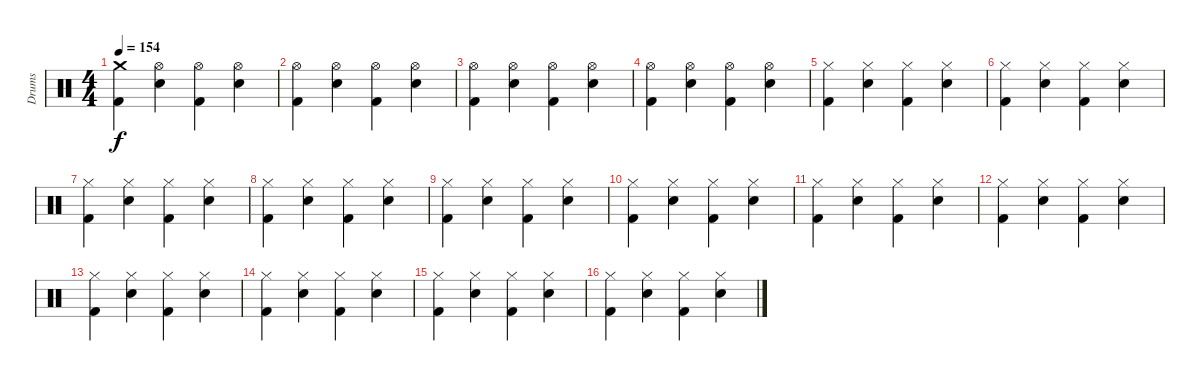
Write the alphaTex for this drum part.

\track ("Drums" "Drums") {instrument percussion}
\staff {score}
\articulation defaults
\ts (4 4)
\tempo 154
\clef neutral
\ks c
("Crash medium (hit)" "Kick (hit) 2").4{dy f} ("Hi-Hat (open)" "Electric Snare (hit)").4 ("Hi-Hat (open)" "Kick (hit) 2").4 ("Hi-Hat (open)" "Electric Snare (hit)").4 |
("Hi-Hat (open)" "Kick (hit) 2").4 ("Hi-Hat (open)" "Electric Snare (hit)").4 ("Hi-Hat (open)" "Kick (hit) 2").4 ("Hi-Hat (open)" "Electric Snare (hit)").4 |
("Kick (hit) 2" "Hi-Hat (open)").4 ("Electric Snare (hit)" "Hi-Hat (open)").4 ("Kick (hit) 2" "Hi-Hat (open)").4 ("Electric Snare (hit)" "Hi-Hat (open)").4 |
("Kick (hit) 2" "Hi-Hat (open)").4 ("Electric Snare (hit)" "Hi-Hat (open)").4 ("Kick (hit) 2" "Hi-Hat (open)").4 ("Electric Snare (hit)" "Hi-Hat (open)").4 |
("Kick (hit) 2" "Hi-Hat (closed)").4 ("Electric Snare (hit)" "Hi-Hat (closed)").4 ("Kick (hit) 2" "Hi-Hat (closed)").4 ("Electric Snare (hit)" "Hi-Hat (closed)").4 |
("Kick (hit) 2" "Hi-Hat (closed)").4 ("Electric Snare (hit)" "Hi-Hat (closed)").4 ("Kick (hit) 2" "Hi-Hat (closed)").4 ("Electric Snare (hit)" "Hi-Hat (closed)").4 |
("Kick (hit) 2" "Hi-Hat (closed)").4 ("Electric Snare (hit)" "Hi-Hat (closed)").4 ("Kick (hit) 2" "Hi-Hat (closed)").4 ("Electric Snare (hit)" "Hi-Hat (closed)").4 |
("Kick (hit) 2" "Hi-Hat (closed)").4 ("Electric Snare (hit)" "Hi-Hat (closed)").4 ("Kick (hit) 2" "Hi-Hat (closed)").4 ("Electric Snare (hit)" "Hi-Hat (closed)").4 |
("Kick (hit) 2" "Hi-Hat (closed)").4 ("Electric Snare (hit)" "Hi-Hat (closed)").4 ("Kick (hit) 2" "Hi-Hat (closed)").4 ("Electric Snare (hit)" "Hi-Hat (closed)").4 |
("Kick (hit) 2" "Hi-Hat (closed)").4 ("Electric Snare (hit)" "Hi-Hat (closed)").4 ("Kick (hit) 2" "Hi-Hat (closed)").4 ("Electric Snare (hit)" "Hi-Hat (closed)").4 |
("Kick (hit) 2" "Hi-Hat (closed)").4 ("Electric Snare (hit)" "Hi-Hat (closed)").4 ("Kick (hit) 2" "Hi-Hat (closed)").4 ("Electric Snare (hit)" "Hi-Hat (closed)").4 |
("Kick (hit) 2" "Hi-Hat (closed)").4 ("Electric Snare (hit)" "Hi-Hat (closed)").4 ("Kick (hit) 2" "Hi-Hat (closed)").4 ("Electric Snare (hit)" "Hi-Hat (closed)").4 |
("Kick (hit) 2" "Hi-Hat (closed)").4 ("Electric Snare (hit)" "Hi-Hat (closed)").4 ("Kick (hit) 2" "Hi-Hat (closed)").4 ("Electric Snare (hit)" "Hi-Hat (closed)").4 |
("Kick (hit) 2" "Hi-Hat (closed)").4 ("Electric Snare (hit)" "Hi-Hat (closed)").4 ("Kick (hit) 2" "Hi-Hat (closed)").4 ("Electric Snare (hit)" "Hi-Hat (closed)").4 |
("Kick (hit) 2" "Hi-Hat (closed)").4 ("Electric Snare (hit)" "Hi-Hat (closed)").4 ("Kick (hit) 2" "Hi-Hat (closed)").4 ("Electric Snare (hit)" "Hi-Hat (closed)").4 |
("Kick (hit) 2" "Hi-Hat (closed)").4 ("Electric Snare (hit)" "Hi-Hat (closed)").4 ("Kick (hit) 2" "Hi-Hat (closed)").4 ("Electric Snare (hit)" "Hi-Hat (closed)").4
